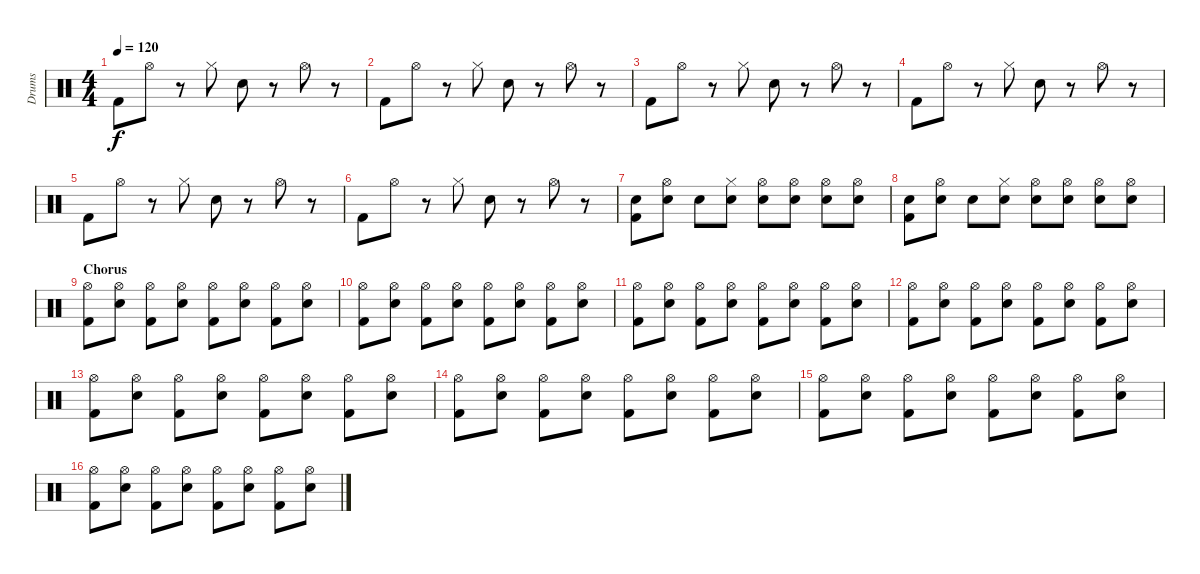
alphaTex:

\track ("Drums" "Drums") {instrument percussion}
\staff {score}
\articulation defaults
\ts (4 4)
\tempo 120
\clef neutral
\ks c "Kick (hit) 2".8{dy f} "Hi-Hat (open)".8
r.8 "Hi-Hat (closed)".8 "Snare (hit) 2".8 r.8 "Hi-Hat (open)".8 r.8 |
"Kick (hit) 2".8 "Hi-Hat (open)".8 r.8 "Hi-Hat (closed)".8 "Snare (hit) 2".8 r.8 "Hi-Hat (open)".8 r.8 |
"Kick (hit) 2".8 "Hi-Hat (open)".8 r.8 "Hi-Hat (closed)".8 "Snare (hit) 2".8 r.8 "Hi-Hat (open)".8 r.8 |
"Kick (hit) 2".8 "Hi-Hat (open)".8 r.8 "Hi-Hat (closed)".8 "Snare (hit) 2".8 r.8 "Hi-Hat (open)".8 r.8 |
"Kick (hit) 2".8 "Hi-Hat (open)".8 r.8 "Hi-Hat (closed)".8 "Snare (hit) 2".8 r.8 "Hi-Hat (open)".8 r.8 |
"Kick (hit) 2".8 "Hi-Hat (open)".8 r.8 "Hi-Hat (closed)".8 "Snare (hit) 2".8 r.8 "Hi-Hat (open)".8 r.8 |
("Snare (hit) 2" "Kick (hit) 2").8 ("Snare (hit) 2" "Hi-Hat (open)").8 "Snare (hit) 2".8 ("Snare (hit) 2" "Hi-Hat (closed)").8 ("Hi-Hat (open)" "Snare (hit) 2").8 ("Hi-Hat (open)" "Snare (hit) 2").8 ("Hi-Hat (open)" "Snare (hit) 2").8 ("Hi-Hat (open)" "Snare (hit) 2").8 |
("Snare (hit) 2" "Kick (hit) 2").8 ("Snare (hit) 2" "Hi-Hat (open)").8 "Snare (hit) 2".8 ("Snare (hit) 2" "Hi-Hat (closed)").8 ("Hi-Hat (open)" "Snare (hit) 2").8 ("Hi-Hat (open)" "Snare (hit) 2").8 ("Hi-Hat (open)" "Snare (hit) 2").8 ("Hi-Hat (open)" "Snare (hit) 2").8 |
\section ("" "Chorus")
("Hi-Hat (open)" "Kick (hit) 2").8 ("Hi-Hat (open)" "Snare (hit) 2").8 ("Hi-Hat (open)" "Kick (hit) 2").8 ("Hi-Hat (open)" "Snare (hit) 2").8 ("Hi-Hat (open)" "Kick (hit) 2").8 ("Hi-Hat (open)" "Snare (hit) 2").8 ("Hi-Hat (open)" "Kick (hit) 2").8 ("Hi-Hat (open)" "Snare (hit) 2").8 |
("Hi-Hat (open)" "Kick (hit) 2").8 ("Hi-Hat (open)" "Snare (hit) 2").8 ("Hi-Hat (open)" "Kick (hit) 2").8 ("Hi-Hat (open)" "Snare (hit) 2").8 ("Hi-Hat (open)" "Kick (hit) 2").8 ("Hi-Hat (open)" "Snare (hit) 2").8 ("Hi-Hat (open)" "Kick (hit) 2").8 ("Hi-Hat (open)" "Snare (hit) 2").8 |
("Hi-Hat (open)" "Kick (hit) 2").8 ("Hi-Hat (open)" "Snare (hit) 2").8 ("Hi-Hat (open)" "Kick (hit) 2").8 ("Hi-Hat (open)" "Snare (hit) 2").8 ("Hi-Hat (open)" "Kick (hit) 2").8 ("Hi-Hat (open)" "Snare (hit) 2").8 ("Hi-Hat (open)" "Kick (hit) 2").8 ("Hi-Hat (open)" "Snare (hit) 2").8 |
("Hi-Hat (open)" "Kick (hit) 2").8 ("Hi-Hat (open)" "Snare (hit) 2").8 ("Hi-Hat (open)" "Kick (hit) 2").8 ("Hi-Hat (open)" "Snare (hit) 2").8 ("Hi-Hat (open)" "Kick (hit) 2").8 ("Hi-Hat (open)" "Snare (hit) 2").8 ("Hi-Hat (open)" "Kick (hit) 2").8 ("Hi-Hat (open)" "Snare (hit) 2").8 |
("Hi-Hat (open)" "Kick (hit) 2").8 ("Hi-Hat (open)" "Snare (hit) 2").8 ("Hi-Hat (open)" "Kick (hit) 2").8 ("Hi-Hat (open)" "Snare (hit) 2").8 ("Hi-Hat (open)" "Kick (hit) 2").8 ("Hi-Hat (open)" "Snare (hit) 2").8 ("Hi-Hat (open)" "Kick (hit) 2").8 ("Hi-Hat (open)" "Snare (hit) 2").8 |
("Hi-Hat (open)" "Kick (hit) 2").8 ("Hi-Hat (open)" "Snare (hit) 2").8 ("Hi-Hat (open)" "Kick (hit) 2").8 ("Hi-Hat (open)" "Snare (hit) 2").8 ("Hi-Hat (open)" "Kick (hit) 2").8 ("Hi-Hat (open)" "Snare (hit) 2").8 ("Hi-Hat (open)" "Kick (hit) 2").8 ("Hi-Hat (open)" "Snare (hit) 2").8 |
("Hi-Hat (open)" "Kick (hit) 2").8 ("Hi-Hat (open)" "Snare (hit) 2").8 ("Hi-Hat (open)" "Kick (hit) 2").8 ("Hi-Hat (open)" "Snare (hit) 2").8 ("Hi-Hat (open)" "Kick (hit) 2").8 ("Hi-Hat (open)" "Snare (hit) 2").8 ("Hi-Hat (open)" "Kick (hit) 2").8 ("Hi-Hat (open)" "Snare (hit) 2").8 |
("Hi-Hat (open)" "Kick (hit) 2").8 ("Hi-Hat (open)" "Snare (hit) 2").8 ("Hi-Hat (open)" "Kick (hit) 2").8 ("Hi-Hat (open)" "Snare (hit) 2").8 ("Hi-Hat (open)" "Kick (hit) 2").8 ("Hi-Hat (open)" "Snare (hit) 2").8 ("Hi-Hat (open)" "Kick (hit) 2").8 ("Hi-Hat (open)" "Snare (hit) 2").8
